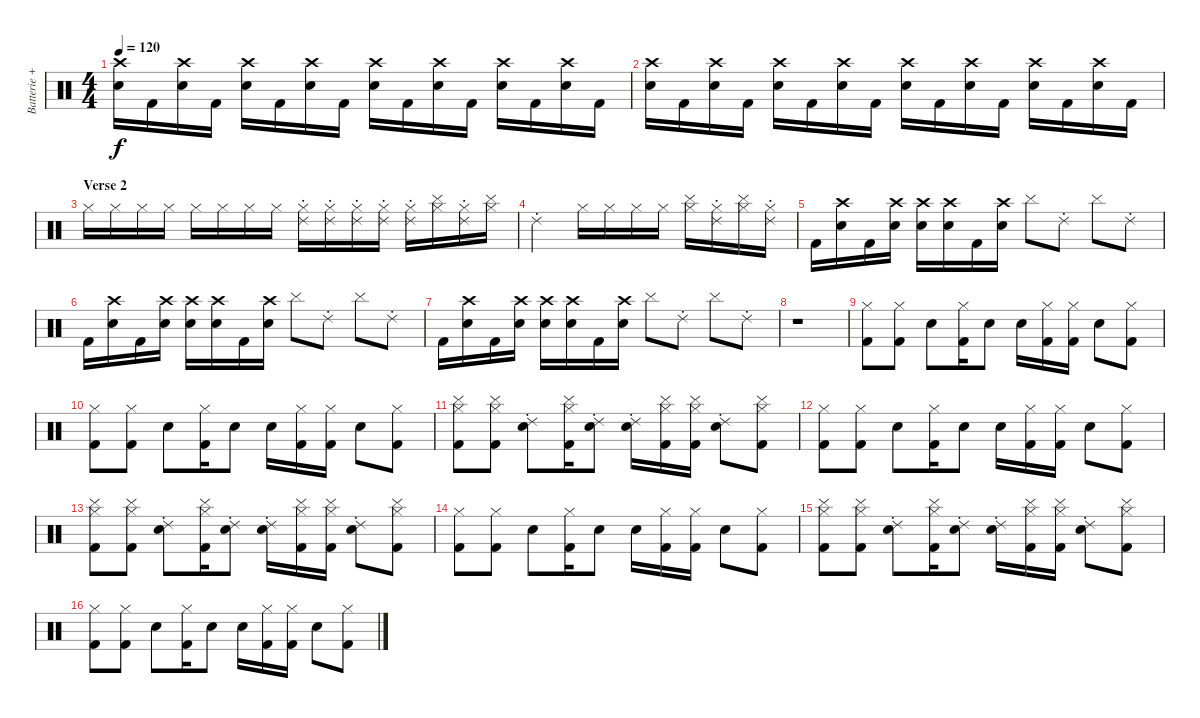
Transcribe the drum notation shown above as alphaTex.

\track ("Batterie + Platines" "Batterie +") {instrument percussion}
\staff {score}
\articulation defaults
\ts (4 4)
\tempo 120
\clef neutral
\ks c
("Crash high (hit)" "Snare (hit) 2").16{dy f} "Kick (hit) 2".16 ("Crash high (hit)" "Snare (hit) 2").16 "Kick (hit) 2".16 ("Crash high (hit)" "Snare (hit) 2").16 "Kick (hit) 2".16 ("Crash high (hit)" "Snare (hit) 2").16 "Kick (hit) 2".16 ("Crash high (hit)" "Snare (hit) 2").16 "Kick (hit) 2".16 ("Crash high (hit)" "Snare (hit) 2").16 "Kick (hit) 2".16 ("Crash high (hit)" "Snare (hit) 2").16 "Kick (hit) 2".16 ("Crash high (hit)" "Snare (hit) 2").16 "Kick (hit) 2".16 |
("Crash high (hit)" "Snare (hit) 2").16 "Kick (hit) 2".16 ("Crash high (hit)" "Snare (hit) 2").16 "Kick (hit) 2".16 ("Crash high (hit)" "Snare (hit) 2").16 "Kick (hit) 2".16 ("Crash high (hit)" "Snare (hit) 2").16 "Kick (hit) 2".16 ("Crash high (hit)" "Snare (hit) 2").16 "Kick (hit) 2".16 ("Crash high (hit)" "Snare (hit) 2").16 "Kick (hit) 2".16 ("Crash high (hit)" "Snare (hit) 2").16 "Kick (hit) 2".16 ("Crash high (hit)" "Snare (hit) 2").16 "Kick (hit) 2".16 |
\section ("" "Verse 2")
"Hi-Hat (closed)".16 "Hi-Hat (closed)".16 "Hi-Hat (closed)".16 "Hi-Hat (closed)".16 "Hi-Hat (closed)".16 "Hi-Hat (closed)".16 "Hi-Hat (closed)".16 "Hi-Hat (closed)".16 ("Ride (choke) 2" "Hi-Hat (closed)").16 ("Ride (choke) 2" "Hi-Hat (closed)").16 ("Ride (choke) 2" "Hi-Hat (closed)").16 ("Ride (choke) 2" "Hi-Hat (closed)").16 ("Ride (choke) 2" "Hi-Hat (closed)").16 ("Cymbal (hit)" "Hi-Hat (closed)").16 ("Ride (choke) 2" "Hi-Hat (closed)").16 ("Cymbal (hit)" "Hi-Hat (closed)").16 |
"Ride (choke) 2".2 "Hi-Hat (closed)".16 "Hi-Hat (closed)".16 "Hi-Hat (closed)".16 "Hi-Hat (closed)".16 ("Cymbal (hit)" "Hi-Hat (closed)").16 ("Ride (choke) 2" "Hi-Hat (closed)").16 ("Cymbal (hit)" "Hi-Hat (closed)").16 ("Ride (choke) 2" "Hi-Hat (closed)").16 |
"Kick (hit) 2".16 ("Crash high (hit)" "Snare (hit) 2").16 "Kick (hit) 2".16 ("Crash high (hit)" "Snare (hit) 2").16 ("Crash high (hit)" "Snare (hit) 2").16 ("Crash high (hit)" "Snare (hit) 2").16 "Kick (hit) 2".16 ("Crash high (hit)" "Snare (hit) 2").16 "Cymbal (hit)".8 "Ride (choke) 2".8 "Cymbal (hit)".8 "Ride (choke) 2".8 |
"Kick (hit) 2".16 ("Crash high (hit)" "Snare (hit) 2").16 "Kick (hit) 2".16 ("Crash high (hit)" "Snare (hit) 2").16 ("Crash high (hit)" "Snare (hit) 2").16 ("Crash high (hit)" "Snare (hit) 2").16 "Kick (hit) 2".16 ("Crash high (hit)" "Snare (hit) 2").16 "Cymbal (hit)".8 "Ride (choke) 2".8 "Cymbal (hit)".8 "Ride (choke) 2".8 |
"Kick (hit) 2".16 ("Crash high (hit)" "Snare (hit) 2").16 "Kick (hit) 2".16 ("Crash high (hit)" "Snare (hit) 2").16 ("Crash high (hit)" "Snare (hit) 2").16 ("Crash high (hit)" "Snare (hit) 2").16 "Kick (hit) 2".16 ("Crash high (hit)" "Snare (hit) 2").16 "Cymbal (hit)".8 "Ride (choke) 2".8 "Cymbal (hit)".8 "Ride (choke) 2".8 |
r.1 |
("Hi-Hat (closed)" "Kick (hit) 2").8 ("Hi-Hat (closed)" "Kick (hit) 2").8 "Snare (hit) 2".8 ("Hi-Hat (closed)" "Kick (hit) 2").16 "Snare (hit) 2".8 "Snare (hit) 2".16 ("Hi-Hat (closed)" "Kick (hit) 2").16 ("Hi-Hat (closed)" "Kick (hit) 2").16 "Snare (hit) 2".8 ("Hi-Hat (closed)" "Kick (hit) 2").8 |
("Hi-Hat (closed)" "Kick (hit) 2").8 ("Hi-Hat (closed)" "Kick (hit) 2").8 "Snare (hit) 2".8 ("Hi-Hat (closed)" "Kick (hit) 2").16 "Snare (hit) 2".8 "Snare (hit) 2".16 ("Hi-Hat (closed)" "Kick (hit) 2").16 ("Hi-Hat (closed)" "Kick (hit) 2").16 "Snare (hit) 2".8 ("Hi-Hat (closed)" "Kick (hit) 2").8 |
("Cymbal (hit)" "Hi-Hat (closed)" "Kick (hit) 2").8 ("Cymbal (hit)" "Hi-Hat (closed)" "Kick (hit) 2").8 ("Ride (choke) 2" "Snare (hit) 2").8 ("Cymbal (hit)" "Hi-Hat (closed)" "Kick (hit) 2").16 ("Ride (choke) 2" "Snare (hit) 2").8 ("Ride (choke) 2" "Snare (hit) 2").16 ("Cymbal (hit)" "Hi-Hat (closed)" "Kick (hit) 2").16 ("Cymbal (hit)" "Hi-Hat (closed)" "Kick (hit) 2").16 ("Ride (choke) 2" "Snare (hit) 2").8 ("Cymbal (hit)" "Hi-Hat (closed)" "Kick (hit) 2").8 |
("Hi-Hat (closed)" "Kick (hit) 2").8 ("Hi-Hat (closed)" "Kick (hit) 2").8 "Snare (hit) 2".8 ("Hi-Hat (closed)" "Kick (hit) 2").16 "Snare (hit) 2".8 "Snare (hit) 2".16 ("Hi-Hat (closed)" "Kick (hit) 2").16 ("Hi-Hat (closed)" "Kick (hit) 2").16 "Snare (hit) 2".8 ("Hi-Hat (closed)" "Kick (hit) 2").8 |
("Cymbal (hit)" "Hi-Hat (closed)" "Kick (hit) 2").8 ("Cymbal (hit)" "Hi-Hat (closed)" "Kick (hit) 2").8 ("Ride (choke) 2" "Snare (hit) 2").8 ("Cymbal (hit)" "Hi-Hat (closed)" "Kick (hit) 2").16 ("Ride (choke) 2" "Snare (hit) 2").8 ("Ride (choke) 2" "Snare (hit) 2").16 ("Cymbal (hit)" "Hi-Hat (closed)" "Kick (hit) 2").16 ("Cymbal (hit)" "Hi-Hat (closed)" "Kick (hit) 2").16 ("Ride (choke) 2" "Snare (hit) 2").8 ("Cymbal (hit)" "Hi-Hat (closed)" "Kick (hit) 2").8 |
("Hi-Hat (closed)" "Kick (hit) 2").8 ("Hi-Hat (closed)" "Kick (hit) 2").8 "Snare (hit) 2".8 ("Hi-Hat (closed)" "Kick (hit) 2").16 "Snare (hit) 2".8 "Snare (hit) 2".16 ("Hi-Hat (closed)" "Kick (hit) 2").16 ("Hi-Hat (closed)" "Kick (hit) 2").16 "Snare (hit) 2".8 ("Hi-Hat (closed)" "Kick (hit) 2").8 |
("Cymbal (hit)" "Hi-Hat (closed)" "Kick (hit) 2").8 ("Cymbal (hit)" "Hi-Hat (closed)" "Kick (hit) 2").8 ("Ride (choke) 2" "Snare (hit) 2").8 ("Cymbal (hit)" "Hi-Hat (closed)" "Kick (hit) 2").16 ("Ride (choke) 2" "Snare (hit) 2").8 ("Ride (choke) 2" "Snare (hit) 2").16 ("Cymbal (hit)" "Hi-Hat (closed)" "Kick (hit) 2").16 ("Cymbal (hit)" "Hi-Hat (closed)" "Kick (hit) 2").16 ("Ride (choke) 2" "Snare (hit) 2").8 ("Cymbal (hit)" "Hi-Hat (closed)" "Kick (hit) 2").8 |
("Hi-Hat (closed)" "Kick (hit) 2").8 ("Hi-Hat (closed)" "Kick (hit) 2").8 "Snare (hit) 2".8 ("Hi-Hat (closed)" "Kick (hit) 2").16 "Snare (hit) 2".8 "Snare (hit) 2".16 ("Hi-Hat (closed)" "Kick (hit) 2").16 ("Hi-Hat (closed)" "Kick (hit) 2").16 "Snare (hit) 2".8 ("Hi-Hat (closed)" "Kick (hit) 2").8
